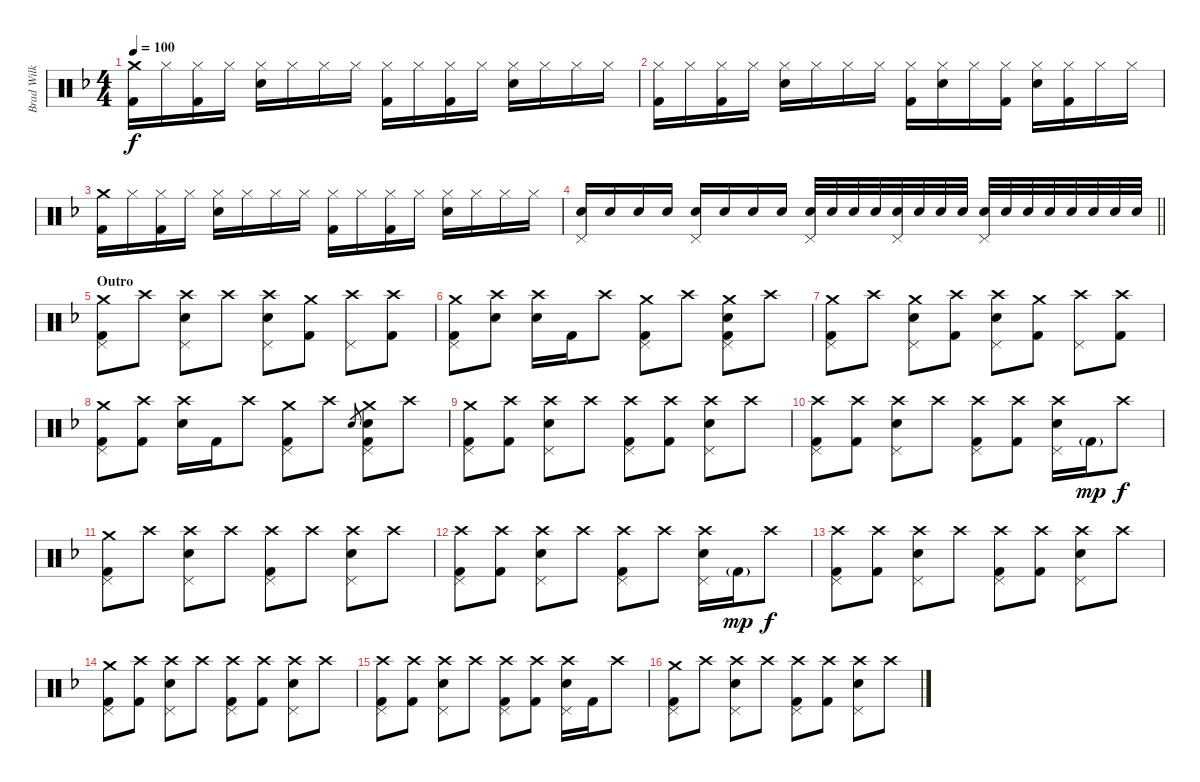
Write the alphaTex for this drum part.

\track ("Brad Wilk" "Brad Wilk") {instrument percussion}
\staff {score}
\articulation defaults
\ts (4 4)
\tempo 100
\clef neutral
\ks f
("Crash medium (hit)" "Kick (hit) 2").16{dy f} "Hi-Hat (closed)".16 ("Hi-Hat (closed)" "Kick (hit) 2").16 "Hi-Hat (closed)".16 ("Hi-Hat (closed)" "Electric Snare (hit)").16 "Hi-Hat (closed)".16 "Hi-Hat (closed)".16 "Hi-Hat (closed)".16 ("Hi-Hat (closed)" "Kick (hit) 2").16 "Hi-Hat (closed)".16 ("Hi-Hat (closed)" "Kick (hit) 2").16 "Hi-Hat (closed)".16 ("Hi-Hat (closed)" "Electric Snare (hit)").16 "Hi-Hat (closed)".16 "Hi-Hat (closed)".16 "Hi-Hat (closed)".16 |
("Hi-Hat (closed)" "Kick (hit) 2").16 "Hi-Hat (closed)".16 ("Hi-Hat (closed)" "Kick (hit) 2").16 "Hi-Hat (closed)".16 ("Hi-Hat (closed)" "Electric Snare (hit)").16 "Hi-Hat (closed)".16 "Hi-Hat (closed)".16 "Hi-Hat (closed)".16 ("Hi-Hat (closed)" "Kick (hit) 2").16 ("Hi-Hat (closed)" "Electric Snare (hit)").16 "Hi-Hat (closed)".16 ("Hi-Hat (closed)" "Kick (hit) 2").16 ("Hi-Hat (closed)" "Electric Snare (hit)").16 ("Hi-Hat (closed)" "Kick (hit) 2").16 "Hi-Hat (closed)".16 "Hi-Hat (closed)".16 |
("Crash medium (hit)" "Kick (hit) 2").16 "Hi-Hat (closed)".16 ("Hi-Hat (closed)" "Kick (hit) 2").16 "Hi-Hat (closed)".16 ("Hi-Hat (closed)" "Electric Snare (hit)").16 "Hi-Hat (closed)".16 "Hi-Hat (closed)".16 "Hi-Hat (closed)".16 ("Hi-Hat (closed)" "Kick (hit) 2").16 "Hi-Hat (closed)".16 ("Hi-Hat (closed)" "Kick (hit) 2").16 "Hi-Hat (closed)".16 ("Hi-Hat (closed)" "Electric Snare (hit)").16 "Hi-Hat (closed)".16 "Hi-Hat (closed)".16 "Hi-Hat (closed)".16 |
\barLineRight lightlight
("Pedal Hi-Hat (hit)" "Electric Snare (hit)").16 "Electric Snare (hit)".16 "Electric Snare (hit)".16 "Electric Snare (hit)".16 ("Pedal Hi-Hat (hit)" "Electric Snare (hit)").16 "Electric Snare (hit)".16 "Electric Snare (hit)".16 "Electric Snare (hit)".16 ("Pedal Hi-Hat (hit)" "Electric Snare (hit)").32 "Electric Snare (hit)".32 "Electric Snare (hit)".32 "Electric Snare (hit)".32 ("Pedal Hi-Hat (hit)" "Electric Snare (hit)").32 "Electric Snare (hit)".32 "Electric Snare (hit)".32 "Electric Snare (hit)".32 ("Pedal Hi-Hat (hit)" "Electric Snare (hit)").32 "Electric Snare (hit)".32 "Electric Snare (hit)".32 "Electric Snare (hit)".32 "Electric Snare (hit)".32 "Electric Snare (hit)".32 "Electric Snare (hit)".32 "Electric Snare (hit)".32 |
\section ("" "Outro")
("Crash medium (hit)" "Pedal Hi-Hat (hit)" "Kick (hit) 2").8 "Crash high (hit)".8 ("Crash high (hit)" "Electric Snare (hit)" "Pedal Hi-Hat (hit)").8 "Crash high (hit)".8 ("Crash high (hit)" "Electric Snare (hit)" "Pedal Hi-Hat (hit)").8 ("Crash medium (hit)" "Kick (hit) 2").8 ("Crash high (hit)" "Pedal Hi-Hat (hit)").8 ("Crash high (hit)" "Kick (hit) 2").8 |
("Crash medium (hit)" "Pedal Hi-Hat (hit)" "Kick (hit) 2").8 ("Crash high (hit)" "Electric Snare (hit)").8 ("Crash high (hit)" "Electric Snare (hit)").16 "Kick (hit) 2".16 "Crash high (hit)".8 ("Crash medium (hit)" "Pedal Hi-Hat (hit)" "Kick (hit) 2").8 "Crash high (hit)".8 ("Crash medium (hit)" "Pedal Hi-Hat (hit)" "Electric Snare (hit)" "Kick (hit) 2").8 "Crash high (hit)".8 |
("Crash medium (hit)" "Pedal Hi-Hat (hit)" "Kick (hit) 2").8 "Crash high (hit)".8 ("Crash medium (hit)" "Electric Snare (hit)" "Pedal Hi-Hat (hit)").8 ("Crash high (hit)" "Kick (hit) 2").8 ("Crash high (hit)" "Electric Snare (hit)" "Pedal Hi-Hat (hit)").8 ("Crash medium (hit)" "Kick (hit) 2").8 ("Crash high (hit)" "Pedal Hi-Hat (hit)").8 ("Crash high (hit)" "Kick (hit) 2").8 |
("Crash medium (hit)" "Pedal Hi-Hat (hit)" "Kick (hit) 2").8 ("Crash high (hit)" "Kick (hit) 2").8 ("Crash high (hit)" "Electric Snare (hit)").16 "Kick (hit) 2".16 "Crash high (hit)".8 ("Crash medium (hit)" "Pedal Hi-Hat (hit)" "Kick (hit) 2").8 "Crash high (hit)".8 "Electric Snare (hit)".8{gr} ("Crash medium (hit)" "Pedal Hi-Hat (hit)" "Electric Snare (hit)" "Kick (hit) 2").8 "Crash high (hit)".8 |
("Crash medium (hit)" "Pedal Hi-Hat (hit)" "Kick (hit) 2").8 ("Crash high (hit)" "Kick (hit) 2").8 ("Crash high (hit)" "Pedal Hi-Hat (hit)" "Electric Snare (hit)").8 "Crash high (hit)".8 ("Crash high (hit)" "Pedal Hi-Hat (hit)" "Kick (hit) 2").8 ("Crash high (hit)" "Kick (hit) 2").8 ("Crash high (hit)" "Pedal Hi-Hat (hit)" "Electric Snare (hit)").8 "Crash high (hit)".8 |
("Crash high (hit)" "Pedal Hi-Hat (hit)" "Kick (hit) 2").8 ("Crash high (hit)" "Kick (hit) 2").8 ("Crash high (hit)" "Pedal Hi-Hat (hit)" "Electric Snare (hit)").8 "Crash high (hit)".8 ("Crash high (hit)" "Pedal Hi-Hat (hit)" "Kick (hit) 2").8 ("Crash high (hit)" "Kick (hit) 2").8 ("Crash high (hit)" "Pedal Hi-Hat (hit)" "Electric Snare (hit)").16 "Kick (hit) 2"{g}.16{dy mp} "Crash high (hit)".8{dy f} |
("Crash medium (hit)" "Pedal Hi-Hat (hit)" "Kick (hit) 2").8 "Crash high (hit)".8 ("Crash high (hit)" "Pedal Hi-Hat (hit)" "Electric Snare (hit)").8 "Crash high (hit)".8 ("Crash high (hit)" "Pedal Hi-Hat (hit)" "Kick (hit) 2").8 "Crash high (hit)".8 ("Crash high (hit)" "Pedal Hi-Hat (hit)" "Electric Snare (hit)").8 "Crash high (hit)".8 |
("Crash high (hit)" "Pedal Hi-Hat (hit)" "Kick (hit) 2").8 ("Crash high (hit)" "Kick (hit) 2").8 ("Crash high (hit)" "Pedal Hi-Hat (hit)" "Electric Snare (hit)").8 "Crash high (hit)".8 ("Crash high (hit)" "Pedal Hi-Hat (hit)" "Kick (hit) 2").8 "Crash high (hit)".8 ("Crash high (hit)" "Pedal Hi-Hat (hit)" "Electric Snare (hit)").16 "Kick (hit) 2"{g}.16{dy mp} "Crash high (hit)".8{dy f} |
("Crash high (hit)" "Pedal Hi-Hat (hit)" "Kick (hit) 2").8 ("Crash high (hit)" "Kick (hit) 2").8 ("Crash high (hit)" "Pedal Hi-Hat (hit)" "Electric Snare (hit)").8 "Crash high (hit)".8 ("Crash high (hit)" "Pedal Hi-Hat (hit)" "Kick (hit) 2").8 ("Crash high (hit)" "Kick (hit) 2").8 ("Crash high (hit)" "Pedal Hi-Hat (hit)" "Electric Snare (hit)").8 "Crash high (hit)".8 |
("Crash medium (hit)" "Pedal Hi-Hat (hit)" "Kick (hit) 2").8 ("Crash high (hit)" "Kick (hit) 2").8 ("Crash high (hit)" "Pedal Hi-Hat (hit)" "Electric Snare (hit)").8 "Crash high (hit)".8 ("Crash high (hit)" "Pedal Hi-Hat (hit)" "Kick (hit) 2").8 ("Crash high (hit)" "Kick (hit) 2").8 ("Crash high (hit)" "Pedal Hi-Hat (hit)" "Electric Snare (hit)").8 "Crash high (hit)".8 |
("Crash high (hit)" "Pedal Hi-Hat (hit)" "Kick (hit) 2").8 ("Crash high (hit)" "Kick (hit) 2").8 ("Crash high (hit)" "Pedal Hi-Hat (hit)" "Electric Snare (hit)").8 "Crash high (hit)".8 ("Crash high (hit)" "Pedal Hi-Hat (hit)" "Kick (hit) 2").8 ("Crash high (hit)" "Kick (hit) 2").8 ("Crash high (hit)" "Pedal Hi-Hat (hit)" "Electric Snare (hit)").16 "Kick (hit) 2".16 "Crash high (hit)".8 |
("Crash medium (hit)" "Pedal Hi-Hat (hit)" "Kick (hit) 2").8 "Crash high (hit)".8 ("Crash high (hit)" "Pedal Hi-Hat (hit)" "Electric Snare (hit)").8 "Crash high (hit)".8 ("Crash high (hit)" "Pedal Hi-Hat (hit)" "Kick (hit) 2").8 ("Crash high (hit)" "Kick (hit) 2").8 ("Crash high (hit)" "Pedal Hi-Hat (hit)" "Electric Snare (hit)").8 "Crash high (hit)".8
